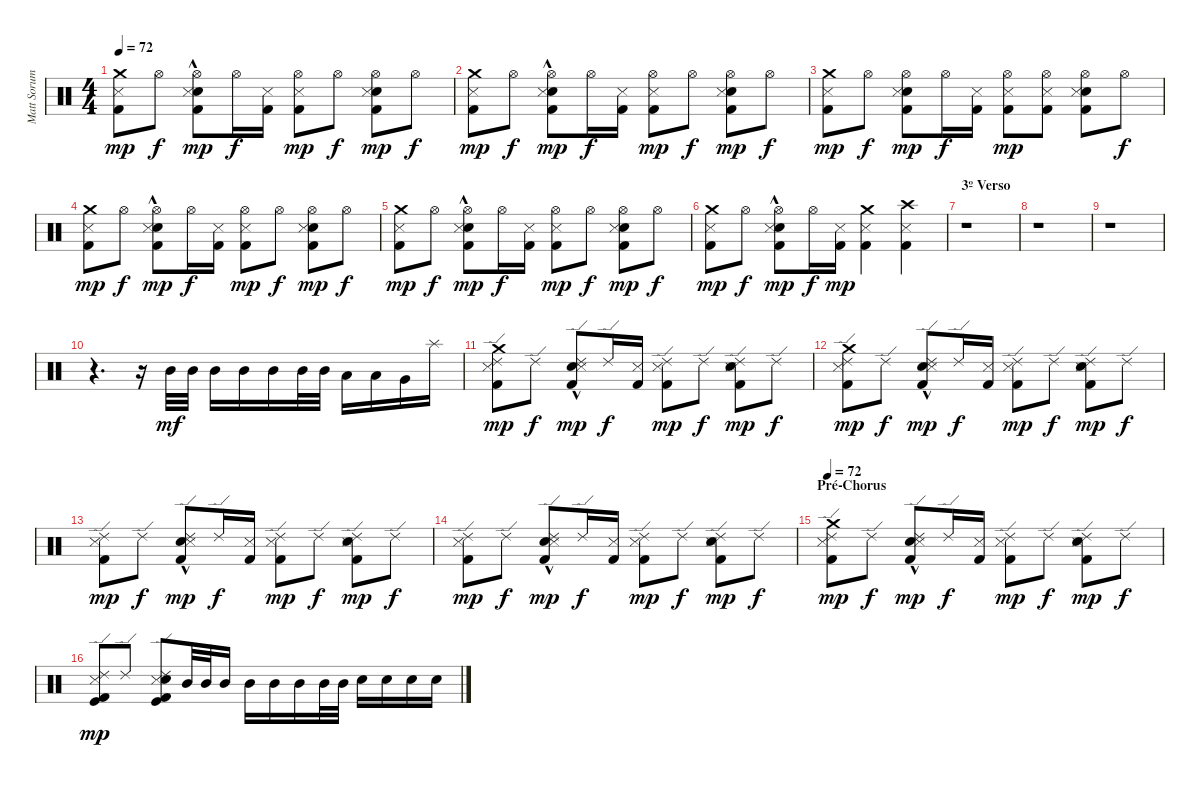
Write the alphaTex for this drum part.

\track ("Matt Sorum" "Matt Sorum") {instrument percussion}
\staff {score}
\articulation defaults
\ts (4 4)
\tempo 72
\clef neutral
\ks c
("Metronome (hit)" "Kick (hit) 2" "Crash medium (hit)").8{dy mp} "Hi-Hat (open)".8{dy f} ("Snare (hit) 2" "Hi-Hat (open)" "Metronome (hit)"{hac} "Kick (hit) 2").8{dy mp} "Hi-Hat (open)".16{dy f} ("Metronome (hit)" "Kick (hit) 2").16 ("Hi-Hat (open)" "Metronome (hit)" "Kick (hit) 2").8{dy mp} "Hi-Hat (open)".8{dy f} ("Snare (hit) 2" "Hi-Hat (open)" "Metronome (hit)" "Kick (hit) 2").8{dy mp} "Hi-Hat (open)".8{dy f} |
("Metronome (hit)" "Kick (hit) 2" "Crash medium (hit)").8{dy mp} "Hi-Hat (open)".8{dy f} ("Snare (hit) 2" "Hi-Hat (open)" "Metronome (hit)"{hac} "Kick (hit) 2").8{dy mp} "Hi-Hat (open)".16{dy f} ("Metronome (hit)" "Kick (hit) 2").16 ("Hi-Hat (open)" "Metronome (hit)" "Kick (hit) 2").8{dy mp} "Hi-Hat (open)".8{dy f} ("Snare (hit) 2" "Hi-Hat (open)" "Metronome (hit)" "Kick (hit) 2").8{dy mp} "Hi-Hat (open)".8{dy f} |
("Metronome (hit)" "Kick (hit) 2" "Crash medium (hit)").8{dy mp} "Hi-Hat (open)".8{dy f} ("Snare (hit) 2" "Hi-Hat (open)" "Metronome (hit)" "Kick (hit) 2").8{dy mp} "Hi-Hat (open)".16{dy f} ("Metronome (hit)" "Kick (hit) 2").16 ("Hi-Hat (open)" "Metronome (hit)" "Kick (hit) 2").8{dy mp} ("Hi-Hat (open)" "Metronome (hit)" "Kick (hit) 2").8 ("Snare (hit) 2" "Hi-Hat (open)" "Metronome (hit)" "Kick (hit) 2").8 "Hi-Hat (open)".8{dy f} |
("Metronome (hit)" "Kick (hit) 2" "Crash medium (hit)").8{dy mp} "Hi-Hat (open)".8{dy f} ("Snare (hit) 2" "Hi-Hat (open)" "Metronome (hit)"{hac} "Kick (hit) 2").8{dy mp} "Hi-Hat (open)".16{dy f} ("Metronome (hit)" "Kick (hit) 2").16 ("Hi-Hat (open)" "Metronome (hit)" "Kick (hit) 2").8{dy mp} "Hi-Hat (open)".8{dy f} ("Snare (hit) 2" "Hi-Hat (open)" "Metronome (hit)" "Kick (hit) 2").8{dy mp} "Hi-Hat (open)".8{dy f} |
("Metronome (hit)" "Kick (hit) 2" "Crash medium (hit)").8{dy mp} "Hi-Hat (open)".8{dy f} ("Snare (hit) 2" "Hi-Hat (open)" "Metronome (hit)"{hac} "Kick (hit) 2").8{dy mp} "Hi-Hat (open)".16{dy f} ("Metronome (hit)" "Kick (hit) 2").16 ("Hi-Hat (open)" "Metronome (hit)" "Kick (hit) 2").8{dy mp} "Hi-Hat (open)".8{dy f} ("Snare (hit) 2" "Hi-Hat (open)" "Metronome (hit)" "Kick (hit) 2").8{dy mp} "Hi-Hat (open)".8{dy f} |
("Metronome (hit)" "Kick (hit) 2" "Crash medium (hit)").8{dy mp} "Hi-Hat (open)".8{dy f} ("Snare (hit) 2" "Hi-Hat (open)" "Metronome (hit)"{hac} "Kick (hit) 2").8{dy mp} "Hi-Hat (open)".16{dy f} ("Metronome (hit)" "Kick (hit) 2").16{dy mp} ("Metronome (hit)" "Kick (hit) 2" "Crash medium (hit)").4 ("Metronome (hit)" "Kick (hit) 2" "Crash high (hit)").4 |
\section ("" "3º Verso")
r.1 |
r.1 |
r.1 |
r.4{d} r.16 "Mid Tom (hit)".32{dy mf} "Mid Tom (hit)".32 "Mid Tom (hit)".16 "Mid Tom (hit)".16 "Mid Tom (hit)".16 "Mid Tom (hit)".32 "Mid Tom (hit)".32 "Low Tom (hit)".16 "Low Tom (hit)".16 "Very Low Tom (hit)".16 "Splash (hit)".16 |
("Ride (edge) 2" "Metronome (hit)" "Kick (hit) 2" "Crash medium (hit)").8{dy mp} "Ride (edge) 2".8{dy f} ("Snare (hit) 2" "Ride (edge) 2" "Metronome (hit)"{hac} "Kick (hit) 2").8{dy mp} "Ride (edge) 2".16{dy f} ("Metronome (hit)" "Kick (hit) 2").16 ("Ride (edge) 2" "Metronome (hit)" "Kick (hit) 2").8{dy mp} "Ride (edge) 2".8{dy f} ("Snare (hit) 2" "Ride (edge) 2" "Metronome (hit)" "Kick (hit) 2").8{dy mp} "Ride (edge) 2".8{dy f} |
("Ride (edge) 2" "Metronome (hit)" "Kick (hit) 2" "Crash medium (hit)").8{dy mp} "Ride (edge) 2".8{dy f} ("Snare (hit) 2" "Ride (edge) 2" "Metronome (hit)"{hac} "Kick (hit) 2").8{dy mp} "Ride (edge) 2".16{dy f} ("Metronome (hit)" "Kick (hit) 2").16 ("Ride (edge) 2" "Metronome (hit)" "Kick (hit) 2").8{dy mp} "Ride (edge) 2".8{dy f} ("Snare (hit) 2" "Ride (edge) 2" "Metronome (hit)" "Kick (hit) 2").8{dy mp} "Ride (edge) 2".8{dy f} |
("Ride (edge) 2" "Metronome (hit)" "Kick (hit) 2").8{dy mp} "Ride (edge) 2".8{dy f} ("Snare (hit) 2" "Ride (edge) 2" "Metronome (hit)"{hac} "Kick (hit) 2").8{dy mp} "Ride (edge) 2".16{dy f} ("Metronome (hit)" "Kick (hit) 2").16 ("Ride (edge) 2" "Metronome (hit)" "Kick (hit) 2").8{dy mp} "Ride (edge) 2".8{dy f} ("Snare (hit) 2" "Ride (edge) 2" "Metronome (hit)" "Kick (hit) 2").8{dy mp} "Ride (edge) 2".8{dy f} |
("Ride (edge) 2" "Metronome (hit)" "Kick (hit) 2").8{dy mp} "Ride (edge) 2".8{dy f} ("Snare (hit) 2" "Ride (edge) 2" "Metronome (hit)"{hac} "Kick (hit) 2").8{dy mp} "Ride (edge) 2".16{dy f} ("Metronome (hit)" "Kick (hit) 2").16 ("Ride (edge) 2" "Metronome (hit)" "Kick (hit) 2").8{dy mp} "Ride (edge) 2".8{dy f} ("Snare (hit) 2" "Ride (edge) 2" "Metronome (hit)" "Kick (hit) 2").8{dy mp} "Ride (edge) 2".8{dy f} |
\section ("" "Pré-Chorus")
\tempo 72
("Ride (edge) 2" "Metronome (hit)" "Kick (hit) 2" "Crash medium (hit)").8{dy mp} "Ride (edge) 2".8{dy f} ("Snare (hit) 2" "Ride (edge) 2" "Metronome (hit)"{hac} "Kick (hit) 2").8{dy mp} "Ride (edge) 2".16{dy f} ("Metronome (hit)" "Kick (hit) 2").16 ("Ride (edge) 2" "Metronome (hit)" "Kick (hit) 2").8{dy mp} "Ride (edge) 2".8{dy f} ("Snare (hit) 2" "Ride (edge) 2" "Metronome (hit)" "Kick (hit) 2").8{dy mp} "Ride (edge) 2".8{dy f} |
("Metronome (hit)" "Kick (hit)" "Kick (hit) 2" "Ride (edge) 2").8{dy mp} "Ride (edge) 2".8 ("Metronome (hit)" "Kick (hit)" "Kick (hit) 2" "Snare (hit) 2" "Ride (edge) 2").8 "Mid Tom (hit)".32 "Mid Tom (hit)".32 "Mid Tom (hit)".16 "Mid Tom (hit)".16 "Mid Tom (hit)".16 "Mid Tom (hit)".16 "Mid Tom (hit)".32 "Mid Tom (hit)".32 "Snare (hit) 2".16 "Snare (hit) 2".16 "Snare (hit) 2".16 "Snare (hit) 2".16
